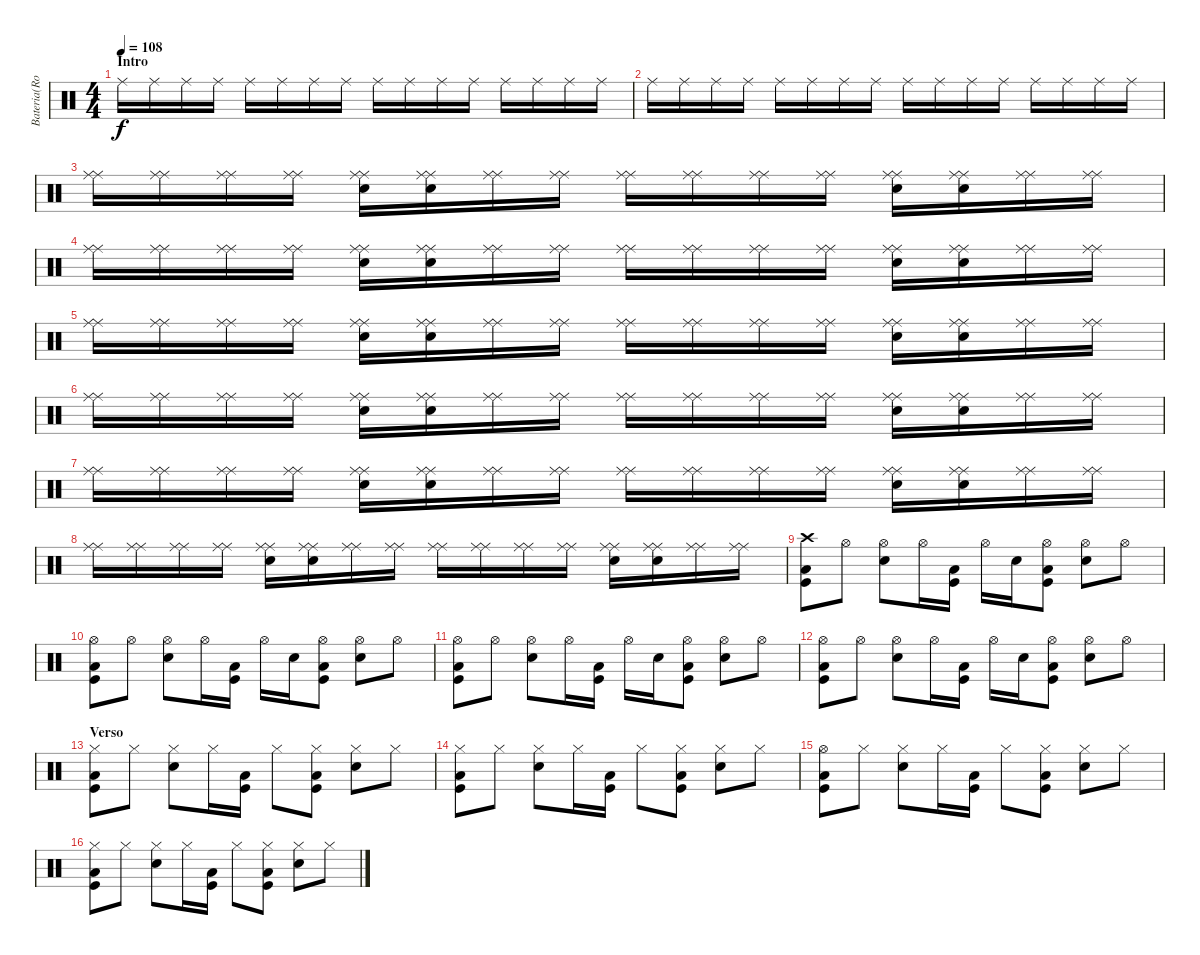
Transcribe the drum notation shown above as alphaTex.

\track ("Bateria(Rob)" "Bateria(Ro") {instrument percussion}
\staff {score}
\articulation defaults
\ts (4 4)
\section ("" "Intro")
\tempo 108
\clef neutral
\ks c "Ride (middle)".16{dy f volume 6} "Ride (middle)".16 "Ride (middle)".16 "Ride (middle)".16 "Ride (middle)".16{volume 9} "Ride (middle)".16 "Ride (middle)".16 "Ride (middle)".16 "Ride (middle)".16{volume 13} "Ride (middle)".16 "Ride (middle)".16 "Ride (middle)".16 "Ride (middle)".16 "Ride (middle)".16 "Ride (middle)".16 "Ride (middle)".16
|
"Ride (middle)".16 "Ride (middle)".16 "Ride (middle)".16 "Ride (middle)".16 "Ride (middle)".16 "Ride (middle)".16 "Ride (middle)".16 "Ride (middle)".16 "Ride (middle)".16 "Ride (middle)".16 "Ride (middle)".16 "Ride (middle)".16 "Ride (middle)".16 "Ride (middle)".16 "Ride (middle)".16 "Ride (middle)".16 |
("Ride (middle)" "Ride (middle)").16 ("Ride (middle)" "Ride (middle)").16 ("Ride (middle)" "Ride (middle)").16 ("Ride (middle)" "Ride (middle)").16 ("Snare (hit) 2" "Ride (middle)" "Ride (middle)").16 ("Snare (hit) 2" "Ride (middle)" "Ride (middle)").16 ("Ride (middle)" "Ride (middle)").16 ("Ride (middle)" "Ride (middle)").16 ("Ride (middle)" "Ride (middle)").16 ("Ride (middle)" "Ride (middle)").16 ("Ride (middle)" "Ride (middle)").16 ("Ride (middle)" "Ride (middle)").16 ("Snare (hit) 2" "Ride (middle)" "Ride (middle)").16 ("Snare (hit) 2" "Ride (middle)" "Ride (middle)").16 ("Ride (middle)" "Ride (middle)").16 ("Ride (middle)" "Ride (middle)").16 |
("Ride (middle)" "Ride (middle)").16 ("Ride (middle)" "Ride (middle)").16 ("Ride (middle)" "Ride (middle)").16 ("Ride (middle)" "Ride (middle)").16 ("Snare (hit) 2" "Ride (middle)" "Ride (middle)").16 ("Snare (hit) 2" "Ride (middle)" "Ride (middle)").16 ("Ride (middle)" "Ride (middle)").16 ("Ride (middle)" "Ride (middle)").16 ("Ride (middle)" "Ride (middle)").16 ("Ride (middle)" "Ride (middle)").16 ("Ride (middle)" "Ride (middle)").16 ("Ride (middle)" "Ride (middle)").16 ("Snare (hit) 2" "Ride (middle)" "Ride (middle)").16 ("Snare (hit) 2" "Ride (middle)" "Ride (middle)").16 ("Ride (middle)" "Ride (middle)").16 ("Ride (middle)" "Ride (middle)").16 |
("Ride (middle)" "Ride (middle)").16 ("Ride (middle)" "Ride (middle)").16 ("Ride (middle)" "Ride (middle)").16 ("Ride (middle)" "Ride (middle)").16 ("Snare (hit) 2" "Ride (middle)" "Ride (middle)").16 ("Snare (hit) 2" "Ride (middle)" "Ride (middle)").16 ("Ride (middle)" "Ride (middle)").16 ("Ride (middle)" "Ride (middle)").16 ("Ride (middle)" "Ride (middle)").16 ("Ride (middle)" "Ride (middle)").16 ("Ride (middle)" "Ride (middle)").16 ("Ride (middle)" "Ride (middle)").16 ("Snare (hit) 2" "Ride (middle)" "Ride (middle)").16 ("Snare (hit) 2" "Ride (middle)" "Ride (middle)").16 ("Ride (middle)" "Ride (middle)").16 ("Ride (middle)" "Ride (middle)").16 |
("Ride (middle)" "Ride (middle)").16 ("Ride (middle)" "Ride (middle)").16 ("Ride (middle)" "Ride (middle)").16 ("Ride (middle)" "Ride (middle)").16 ("Snare (hit) 2" "Ride (middle)" "Ride (middle)").16 ("Snare (hit) 2" "Ride (middle)" "Ride (middle)").16 ("Ride (middle)" "Ride (middle)").16 ("Ride (middle)" "Ride (middle)").16 ("Ride (middle)" "Ride (middle)").16 ("Ride (middle)" "Ride (middle)").16 ("Ride (middle)" "Ride (middle)").16 ("Ride (middle)" "Ride (middle)").16 ("Snare (hit) 2" "Ride (middle)" "Ride (middle)").16 ("Snare (hit) 2" "Ride (middle)" "Ride (middle)").16 ("Ride (middle)" "Ride (middle)").16 ("Ride (middle)" "Ride (middle)").16 |
("Ride (middle)" "Ride (middle)").16 ("Ride (middle)" "Ride (middle)").16 ("Ride (middle)" "Ride (middle)").16 ("Ride (middle)" "Ride (middle)").16 ("Snare (hit) 2" "Ride (middle)" "Ride (middle)").16 ("Snare (hit) 2" "Ride (middle)" "Ride (middle)").16 ("Ride (middle)" "Ride (middle)").16 ("Ride (middle)" "Ride (middle)").16 ("Ride (middle)" "Ride (middle)").16 ("Ride (middle)" "Ride (middle)").16 ("Ride (middle)" "Ride (middle)").16 ("Ride (middle)" "Ride (middle)").16 ("Snare (hit) 2" "Ride (middle)" "Ride (middle)").16 ("Snare (hit) 2" "Ride (middle)" "Ride (middle)").16 ("Ride (middle)" "Ride (middle)").16 ("Ride (middle)" "Ride (middle)").16 |
("Ride (middle)" "Ride (middle)").16 ("Ride (middle)" "Ride (middle)").16 ("Ride (middle)" "Ride (middle)").16 ("Ride (middle)" "Ride (middle)").16 ("Snare (hit) 2" "Ride (middle)" "Ride (middle)").16 ("Snare (hit) 2" "Ride (middle)" "Ride (middle)").16 ("Ride (middle)" "Ride (middle)").16 ("Ride (middle)" "Ride (middle)").16 ("Ride (middle)" "Ride (middle)").16 ("Ride (middle)" "Ride (middle)").16 ("Ride (middle)" "Ride (middle)").16 ("Ride (middle)" "Ride (middle)").16 ("Snare (hit) 2" "Ride (middle)" "Ride (middle)").16 ("Snare (hit) 2" "Ride (middle)" "Ride (middle)").16 ("Ride (middle)" "Ride (middle)").16 ("Ride (middle)" "Ride (middle)").16 |
("Crash high (hit)" "Kick (hit)" "Low Tom (hit)").8{volume 16} "Hi-Hat (open)".8 ("Hi-Hat (open)" "Snare (hit) 2").8 "Hi-Hat (open)".16 ("Kick (hit)" "Low Tom (hit)").16 "Hi-Hat (open)".16 "Snare (hit) 2".16 ("Hi-Hat (open)" "Kick (hit)" "Low Tom (hit)").8 ("Hi-Hat (open)" "Snare (hit) 2").8 "Hi-Hat (open)".8 |
("Hi-Hat (open)" "Kick (hit)" "Low Tom (hit)").8 "Hi-Hat (open)".8 ("Hi-Hat (open)" "Snare (hit) 2").8 "Hi-Hat (open)".16 ("Kick (hit)" "Low Tom (hit)").16 "Hi-Hat (open)".16 "Snare (hit) 2".16 ("Hi-Hat (open)" "Kick (hit)" "Low Tom (hit)").8 ("Hi-Hat (open)" "Snare (hit) 2").8 "Hi-Hat (open)".8 |
("Hi-Hat (open)" "Kick (hit)" "Low Tom (hit)").8 "Hi-Hat (open)".8 ("Hi-Hat (open)" "Snare (hit) 2").8 "Hi-Hat (open)".16 ("Kick (hit)" "Low Tom (hit)").16 "Hi-Hat (open)".16 "Snare (hit) 2".16 ("Hi-Hat (open)" "Kick (hit)" "Low Tom (hit)").8 ("Hi-Hat (open)" "Snare (hit) 2").8 "Hi-Hat (open)".8 |
("Hi-Hat (open)" "Kick (hit)" "Low Tom (hit)").8 "Hi-Hat (open)".8 ("Hi-Hat (open)" "Snare (hit) 2").8 "Hi-Hat (open)".16 ("Kick (hit)" "Low Tom (hit)").16 "Hi-Hat (open)".16 "Snare (hit) 2".16 ("Hi-Hat (open)" "Kick (hit)" "Low Tom (hit)").8 ("Hi-Hat (open)" "Snare (hit) 2").8 "Hi-Hat (open)".8 |
\section ("" "Verso")
("Hi-Hat (closed)" "Kick (hit)" "Low Tom (hit)").8 "Hi-Hat (closed)".8 ("Hi-Hat (closed)" "Snare (hit) 2").8 "Hi-Hat (closed)".16 ("Kick (hit)" "Low Tom (hit)").16 "Hi-Hat (closed)".8 ("Hi-Hat (closed)" "Kick (hit)" "Low Tom (hit)").8 ("Hi-Hat (closed)" "Snare (hit) 2").8 "Hi-Hat (closed)".8 |
("Hi-Hat (closed)" "Kick (hit)" "Low Tom (hit)").8 "Hi-Hat (closed)".8 ("Hi-Hat (closed)" "Snare (hit) 2").8 "Hi-Hat (closed)".16 ("Kick (hit)" "Low Tom (hit)").16 "Hi-Hat (closed)".8 ("Hi-Hat (closed)" "Kick (hit)" "Low Tom (hit)").8 ("Hi-Hat (closed)" "Snare (hit) 2").8 "Hi-Hat (closed)".8 |
("Hi-Hat (open)" "Kick (hit)" "Low Tom (hit)").8 "Hi-Hat (closed)".8 ("Hi-Hat (closed)" "Snare (hit) 2").8 "Hi-Hat (closed)".16 ("Kick (hit)" "Low Tom (hit)").16 "Hi-Hat (closed)".8 ("Hi-Hat (closed)" "Kick (hit)" "Low Tom (hit)").8 ("Hi-Hat (closed)" "Snare (hit) 2").8 "Hi-Hat (closed)".8 |
("Hi-Hat (closed)" "Kick (hit)" "Low Tom (hit)").8 "Hi-Hat (closed)".8 ("Hi-Hat (closed)" "Snare (hit) 2").8 "Hi-Hat (closed)".16 ("Kick (hit)" "Low Tom (hit)").16 "Hi-Hat (closed)".8 ("Hi-Hat (closed)" "Kick (hit)" "Low Tom (hit)").8 ("Hi-Hat (closed)" "Snare (hit) 2").8 "Hi-Hat (closed)".8
